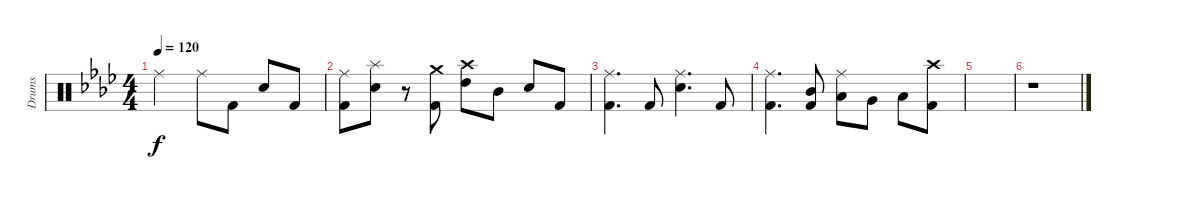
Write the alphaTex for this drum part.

\track ("Drums" "Drums") {instrument percussion}
\staff {score}
\articulation defaults
\ts (4 4)
\tempo 120
\clef neutral
\ks ab "Ride (middle)".2{dy f} "Ride (middle)".8 "Kick (hit) 2".8 "Snare (hit) 2".8 "Kick (hit) 2".8
|
("Ride (middle)" "Kick (hit) 2").8 ("Splash (hit)" "Snare (hit) 2").8 r.8 ("Crash medium (hit)" "Kick (hit) 2").8 ("Crash high (hit)" "High Tom (hit)").8 "Mid Tom (hit)".8 "Snare (hit) 2".8 "Kick (hit) 2".8 |
("Ride (middle)" "Kick (hit) 2").4{d} "Kick (hit) 2".8 ("Ride (middle)" "Snare (hit) 2").4{d} "Kick (hit) 2".8 |
("Ride (middle)" "Kick (hit) 2").4{d} ("Mid Tom (hit)" "Kick (hit) 2").8 ("Ride (middle)" "Low Tom (hit)").8 "Very Low Tom (hit)".8 "Low Floor Tom (hit)".8 ("Crash high (hit)" "Kick (hit) 2").8 |
|
r.1
